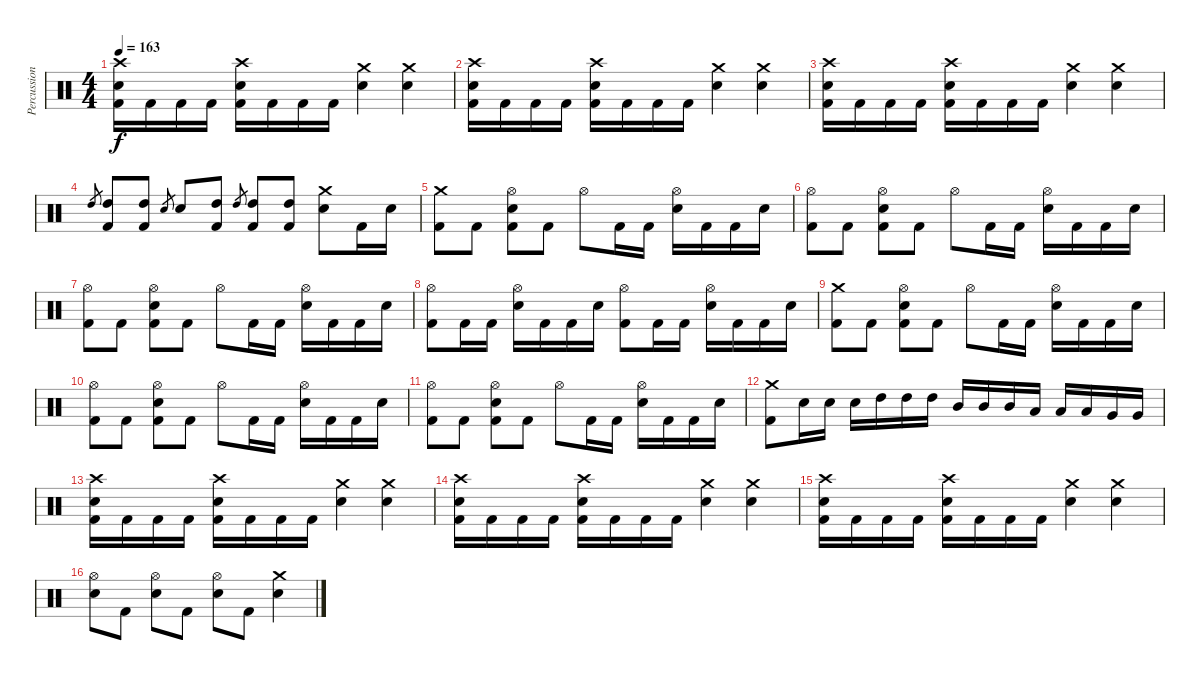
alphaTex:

\track ("Percussion" "Percussion") {instrument percussion}
\staff {score}
\articulation defaults
\ts (4 4)
\tempo 163
\clef neutral
\ks c
("Crash high (hit)" "Electric Snare (hit)" "Kick (hit) 2").16{dy f} "Kick (hit) 2".16 "Kick (hit) 2".16 "Kick (hit) 2".16 ("Crash high (hit)" "Electric Snare (hit)" "Kick (hit) 2").16 "Kick (hit) 2".16 "Kick (hit) 2".16 "Kick (hit) 2".16 ("Crash medium (hit)" "Electric Snare (hit)").4 ("Crash medium (hit)" "Electric Snare (hit)").4 |
("Crash high (hit)" "Electric Snare (hit)" "Kick (hit) 2").16 "Kick (hit) 2".16 "Kick (hit) 2".16 "Kick (hit) 2".16 ("Crash high (hit)" "Electric Snare (hit)" "Kick (hit) 2").16 "Kick (hit) 2".16 "Kick (hit) 2".16 "Kick (hit) 2".16 ("Crash medium (hit)" "Electric Snare (hit)").4 ("Crash medium (hit)" "Electric Snare (hit)").4 |
("Crash high (hit)" "Electric Snare (hit)" "Kick (hit) 2").16 "Kick (hit) 2".16 "Kick (hit) 2".16 "Kick (hit) 2".16 ("Crash high (hit)" "Electric Snare (hit)" "Kick (hit) 2").16 "Kick (hit) 2".16 "Kick (hit) 2".16 "Kick (hit) 2".16 ("Crash medium (hit)" "Electric Snare (hit)").4 ("Crash medium (hit)" "Electric Snare (hit)").4 |
"High Tom (hit)".8{gr} ("High Tom (hit)" "Kick (hit) 2").8 ("High Tom (hit)" "Kick (hit) 2").8 "Electric Snare (hit)".8{gr} "Electric Snare (hit)".8 ("High Tom (hit)" "Kick (hit) 2").8 "High Tom (hit)".8{gr} ("High Tom (hit)" "Kick (hit) 2").8 ("High Tom (hit)" "Kick (hit) 2").8 ("Crash medium (hit)" "Electric Snare (hit)").8 "Kick (hit) 2".16 "Electric Snare (hit)".16 |
("Crash medium (hit)" "Kick (hit) 2").8 "Kick (hit) 2".8 ("Hi-Hat (open)" "Electric Snare (hit)" "Kick (hit) 2").8 "Kick (hit) 2".8 "Hi-Hat (open)".8 "Kick (hit) 2".16 "Kick (hit) 2".16 ("Hi-Hat (open)" "Electric Snare (hit)").16 "Kick (hit) 2".16 "Kick (hit) 2".16 "Electric Snare (hit)".16 |
("Hi-Hat (open)" "Kick (hit) 2").8 "Kick (hit) 2".8 ("Hi-Hat (open)" "Electric Snare (hit)" "Kick (hit) 2").8 "Kick (hit) 2".8 "Hi-Hat (open)".8 "Kick (hit) 2".16 "Kick (hit) 2".16 ("Hi-Hat (open)" "Electric Snare (hit)").16 "Kick (hit) 2".16 "Kick (hit) 2".16 "Electric Snare (hit)".16 |
("Hi-Hat (open)" "Kick (hit) 2").8 "Kick (hit) 2".8 ("Hi-Hat (open)" "Electric Snare (hit)" "Kick (hit) 2").8 "Kick (hit) 2".8 "Hi-Hat (open)".8 "Kick (hit) 2".16 "Kick (hit) 2".16 ("Hi-Hat (open)" "Electric Snare (hit)").16 "Kick (hit) 2".16 "Kick (hit) 2".16 "Electric Snare (hit)".16 |
("Hi-Hat (open)" "Kick (hit) 2").8 "Kick (hit) 2".16 "Kick (hit) 2".16 ("Hi-Hat (open)" "Electric Snare (hit)").16 "Kick (hit) 2".16 "Kick (hit) 2".16 "Electric Snare (hit)".16 ("Hi-Hat (open)" "Kick (hit) 2").8 "Kick (hit) 2".16 "Kick (hit) 2".16 ("Hi-Hat (open)" "Electric Snare (hit)").16 "Kick (hit) 2".16 "Kick (hit) 2".16 "Electric Snare (hit)".16 |
("Crash medium (hit)" "Kick (hit) 2").8 "Kick (hit) 2".8 ("Hi-Hat (open)" "Electric Snare (hit)" "Kick (hit) 2").8 "Kick (hit) 2".8 "Hi-Hat (open)".8 "Kick (hit) 2".16 "Kick (hit) 2".16 ("Hi-Hat (open)" "Electric Snare (hit)").16 "Kick (hit) 2".16 "Kick (hit) 2".16 "Electric Snare (hit)".16 |
("Hi-Hat (open)" "Kick (hit) 2").8 "Kick (hit) 2".8 ("Hi-Hat (open)" "Electric Snare (hit)" "Kick (hit) 2").8 "Kick (hit) 2".8 "Hi-Hat (open)".8 "Kick (hit) 2".16 "Kick (hit) 2".16 ("Hi-Hat (open)" "Electric Snare (hit)").16 "Kick (hit) 2".16 "Kick (hit) 2".16 "Electric Snare (hit)".16 |
("Hi-Hat (open)" "Kick (hit) 2").8 "Kick (hit) 2".8 ("Hi-Hat (open)" "Electric Snare (hit)" "Kick (hit) 2").8 "Kick (hit) 2".8 "Hi-Hat (open)".8 "Kick (hit) 2".16 "Kick (hit) 2".16 ("Hi-Hat (open)" "Electric Snare (hit)").16 "Kick (hit) 2".16 "Kick (hit) 2".16 "Electric Snare (hit)".16 |
("Crash medium (hit)" "Kick (hit) 2").8 "Electric Snare (hit)".16 "Electric Snare (hit)".16 "Electric Snare (hit)".16 "High Tom (hit)".16 "High Tom (hit)".16 "High Tom (hit)".16 "Mid Tom (hit)".16 "Mid Tom (hit)".16 "Mid Tom (hit)".16 "Low Tom (hit)".16 "Low Tom (hit)".16 "Low Tom (hit)".16 "Very Low Tom (hit)".16 "Very Low Tom (hit)".16 |
("Crash high (hit)" "Electric Snare (hit)" "Kick (hit) 2").16 "Kick (hit) 2".16 "Kick (hit) 2".16 "Kick (hit) 2".16 ("Crash high (hit)" "Electric Snare (hit)" "Kick (hit) 2").16 "Kick (hit) 2".16 "Kick (hit) 2".16 "Kick (hit) 2".16 ("Crash medium (hit)" "Electric Snare (hit)").4 ("Crash medium (hit)" "Electric Snare (hit)").4 |
("Crash high (hit)" "Electric Snare (hit)" "Kick (hit) 2").16 "Kick (hit) 2".16 "Kick (hit) 2".16 "Kick (hit) 2".16 ("Crash high (hit)" "Electric Snare (hit)" "Kick (hit) 2").16 "Kick (hit) 2".16 "Kick (hit) 2".16 "Kick (hit) 2".16 ("Crash medium (hit)" "Electric Snare (hit)").4 ("Crash medium (hit)" "Electric Snare (hit)").4 |
("Crash high (hit)" "Electric Snare (hit)" "Kick (hit) 2").16 "Kick (hit) 2".16 "Kick (hit) 2".16 "Kick (hit) 2".16 ("Crash high (hit)" "Electric Snare (hit)" "Kick (hit) 2").16 "Kick (hit) 2".16 "Kick (hit) 2".16 "Kick (hit) 2".16 ("Crash medium (hit)" "Electric Snare (hit)").4 ("Crash medium (hit)" "Electric Snare (hit)").4 |
("Hi-Hat (open)" "Electric Snare (hit)").8 "Kick (hit) 2".8 ("Hi-Hat (open)" "Electric Snare (hit)").8 "Kick (hit) 2".8 ("Hi-Hat (open)" "Electric Snare (hit)").8 "Kick (hit) 2".8 ("Crash medium (hit)" "Electric Snare (hit)").4
